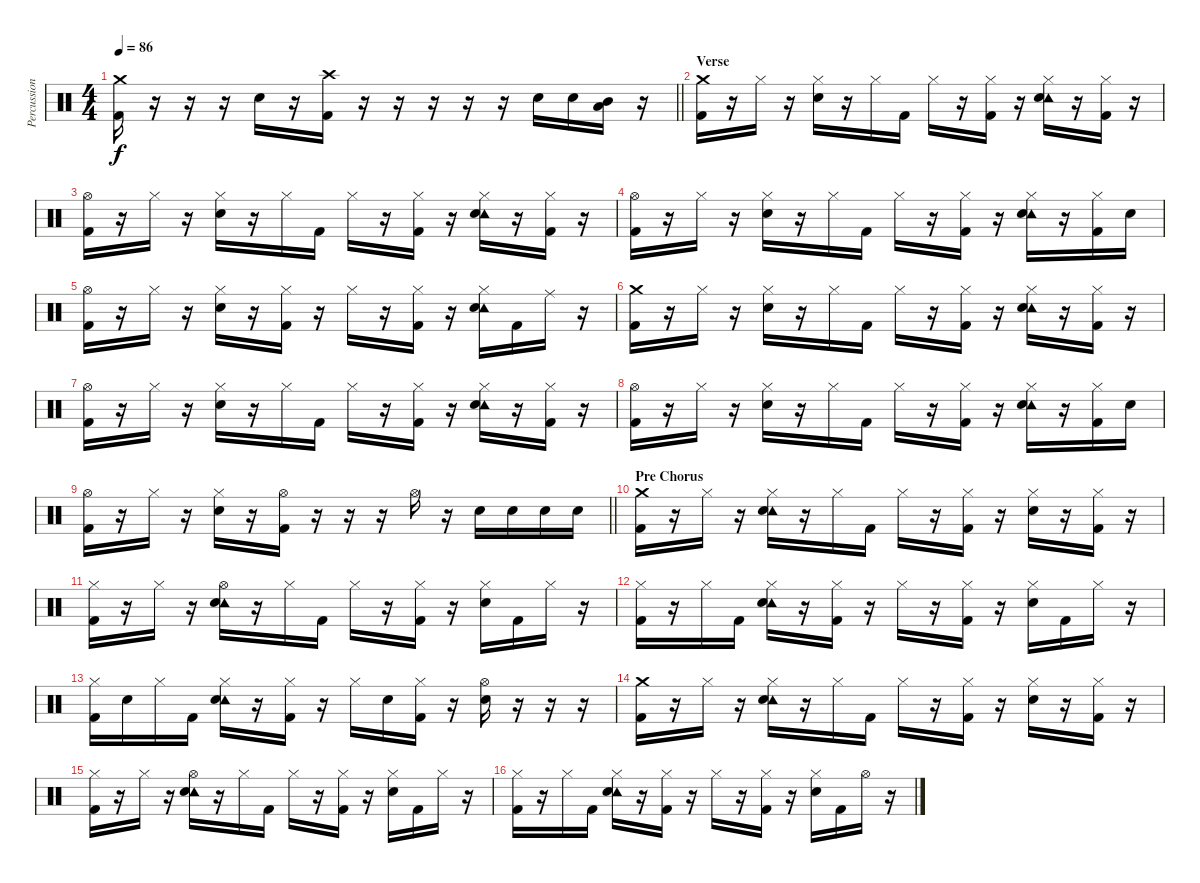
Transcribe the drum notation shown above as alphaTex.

\track ("Percussion" "Percussion") {instrument percussion}
\staff {score}
\articulation defaults
\ts (4 4)
\tempo 86
\clef neutral
\barLineRight lightlight
\ks c
("Crash medium (hit)" "Kick (hit) 2").16{dy f} r.16 r.16 r.16 "Snare (hit) 2".16 r.16 ("Crash high (hit)" "Kick (hit) 2").16 r.16 r.16 r.16 r.16 r.16 "Snare (hit) 2".16 "Snare (hit) 2".16 ("Mid Tom (hit)" "Low Tom (hit)").16 r.16 |
\section ("" "Verse")
("Crash medium (hit)" "Kick (hit) 2").16 r.16 "Hi-Hat (closed)".16 r.16 ("Hi-Hat (closed)" "Snare (hit) 2").16 r.16 "Hi-Hat (closed)".16 "Kick (hit) 2".16 "Hi-Hat (closed)".16 r.16 ("Hi-Hat (closed)" "Kick (hit) 2").16 r.16 ("Hi-Hat (closed)" "Tambourine (hit)" "Snare (hit) 2").16 r.16 ("Hi-Hat (closed)" "Kick (hit) 2").16 r.16 |
("Hi-Hat (open)" "Kick (hit) 2").16 r.16 "Hi-Hat (closed)".16 r.16 ("Hi-Hat (closed)" "Snare (hit) 2").16 r.16 "Hi-Hat (closed)".16 "Kick (hit) 2".16 "Hi-Hat (closed)".16 r.16 ("Hi-Hat (closed)" "Kick (hit) 2").16 r.16 ("Hi-Hat (closed)" "Tambourine (hit)" "Snare (hit) 2").16 r.16 ("Hi-Hat (closed)" "Kick (hit) 2").16 r.16 |
("Hi-Hat (open)" "Kick (hit) 2").16 r.16 "Hi-Hat (closed)".16 r.16 ("Hi-Hat (closed)" "Snare (hit) 2").16 r.16 "Hi-Hat (closed)".16 "Kick (hit) 2".16 "Hi-Hat (closed)".16 r.16 ("Hi-Hat (closed)" "Kick (hit) 2").16 r.16 ("Hi-Hat (closed)" "Tambourine (hit)" "Snare (hit) 2").16 r.16 ("Hi-Hat (closed)" "Kick (hit) 2").16 "Snare (hit) 2".16 |
("Hi-Hat (open)" "Kick (hit) 2").16 r.16 "Hi-Hat (closed)".16 r.16 ("Hi-Hat (closed)" "Snare (hit) 2").16 r.16 ("Hi-Hat (closed)" "Kick (hit) 2").16 r.16 "Hi-Hat (closed)".16 r.16 ("Hi-Hat (closed)" "Kick (hit) 2").16 r.16 ("Hi-Hat (closed)" "Tambourine (hit)" "Snare (hit) 2").16 "Kick (hit) 2".16 "Ride (middle)".16 r.16 |
("Crash medium (hit)" "Kick (hit) 2").16 r.16 "Hi-Hat (closed)".16 r.16 ("Hi-Hat (closed)" "Snare (hit) 2").16 r.16 "Hi-Hat (closed)".16 "Kick (hit) 2".16 "Hi-Hat (closed)".16 r.16 ("Hi-Hat (closed)" "Kick (hit) 2").16 r.16 ("Hi-Hat (closed)" "Tambourine (hit)" "Snare (hit) 2").16 r.16 ("Hi-Hat (closed)" "Kick (hit) 2").16 r.16 |
("Hi-Hat (open)" "Kick (hit) 2").16 r.16 "Hi-Hat (closed)".16 r.16 ("Hi-Hat (closed)" "Snare (hit) 2").16 r.16 "Hi-Hat (closed)".16 "Kick (hit) 2".16 "Hi-Hat (closed)".16 r.16 ("Hi-Hat (closed)" "Kick (hit) 2").16 r.16 ("Hi-Hat (closed)" "Tambourine (hit)" "Snare (hit) 2").16 r.16 ("Hi-Hat (closed)" "Kick (hit) 2").16 r.16 |
("Hi-Hat (open)" "Kick (hit) 2").16 r.16 "Hi-Hat (closed)".16 r.16 ("Hi-Hat (closed)" "Snare (hit) 2").16 r.16 "Hi-Hat (closed)".16 "Kick (hit) 2".16 "Hi-Hat (closed)".16 r.16 ("Hi-Hat (closed)" "Kick (hit) 2").16 r.16 ("Hi-Hat (closed)" "Tambourine (hit)" "Snare (hit) 2").16 r.16 ("Hi-Hat (closed)" "Kick (hit) 2").16 "Snare (hit) 2".16 |
\barLineRight lightlight
("Hi-Hat (open)" "Kick (hit) 2").16 r.16 "Hi-Hat (closed)".16 r.16 ("Hi-Hat (closed)" "Snare (hit) 2").16 r.16 ("Hi-Hat (open)" "Kick (hit) 2").16 r.16 r.16 r.16 "Hi-Hat (open)".16 r.16 "Snare (hit) 2".16 "Snare (hit) 2".16 "Snare (hit) 2".16 "Snare (hit) 2".16 |
\section ("" "Pre Chorus")
("Crash medium (hit)" "Kick (hit) 2").16 r.16 "Hi-Hat (closed)".16 r.16 ("Hi-Hat (closed)" "Tambourine (hit)" "Snare (hit) 2").16 r.16 "Hi-Hat (closed)".16 "Kick (hit) 2".16 "Hi-Hat (closed)".16 r.16 ("Hi-Hat (closed)" "Kick (hit) 2").16 r.16 ("Hi-Hat (closed)" "Snare (hit) 2").16 r.16 ("Hi-Hat (closed)" "Kick (hit) 2").16 r.16 |
("Hi-Hat (closed)" "Kick (hit) 2").16 r.16 "Hi-Hat (closed)".16 r.16 ("Hi-Hat (open)" "Tambourine (hit)" "Snare (hit) 2").16 r.16 "Hi-Hat (closed)".16 "Kick (hit) 2".16 "Hi-Hat (closed)".16 r.16 ("Hi-Hat (closed)" "Kick (hit) 2").16 r.16 ("Hi-Hat (closed)" "Snare (hit) 2").16 "Kick (hit) 2".16 "Hi-Hat (closed)".16 r.16 |
("Hi-Hat (closed)" "Kick (hit) 2").16 r.16 "Hi-Hat (closed)".16 "Kick (hit) 2".16 ("Hi-Hat (closed)" "Tambourine (hit)" "Snare (hit) 2").16 r.16 ("Hi-Hat (closed)" "Kick (hit) 2").16 r.16 "Hi-Hat (closed)".16 r.16 ("Hi-Hat (closed)" "Kick (hit) 2").16 r.16 ("Hi-Hat (closed)" "Snare (hit) 2").16 "Kick (hit) 2".16 "Hi-Hat (closed)".16 r.16 |
("Hi-Hat (closed)" "Kick (hit) 2").16 "Snare (hit) 2".16 "Hi-Hat (closed)".16 "Kick (hit) 2".16 ("Hi-Hat (closed)" "Tambourine (hit)" "Snare (hit) 2").16 r.16 ("Hi-Hat (closed)" "Kick (hit) 2").16 r.16 "Hi-Hat (closed)".16 "Snare (hit) 2".16 ("Hi-Hat (closed)" "Kick (hit) 2").16 r.16 ("Hi-Hat (open)" "Snare (hit) 2").16 r.16 r.16 r.16 |
("Crash medium (hit)" "Kick (hit) 2").16 r.16 "Hi-Hat (closed)".16 r.16 ("Hi-Hat (closed)" "Tambourine (hit)" "Snare (hit) 2").16 r.16 "Hi-Hat (closed)".16 "Kick (hit) 2".16 "Hi-Hat (closed)".16 r.16 ("Hi-Hat (closed)" "Kick (hit) 2").16 r.16 ("Hi-Hat (closed)" "Snare (hit) 2").16 r.16 ("Hi-Hat (closed)" "Kick (hit) 2").16 r.16 |
("Hi-Hat (closed)" "Kick (hit) 2").16 r.16 "Hi-Hat (closed)".16 r.16 ("Hi-Hat (open)" "Tambourine (hit)" "Snare (hit) 2").16 r.16 "Hi-Hat (closed)".16 "Kick (hit) 2".16 "Hi-Hat (closed)".16 r.16 ("Hi-Hat (closed)" "Kick (hit) 2").16 r.16 ("Hi-Hat (closed)" "Snare (hit) 2").16 "Kick (hit) 2".16 "Hi-Hat (closed)".16 r.16 |
("Hi-Hat (closed)" "Kick (hit) 2").16 r.16 "Hi-Hat (closed)".16 "Kick (hit) 2".16 ("Hi-Hat (closed)" "Tambourine (hit)" "Snare (hit) 2").16 r.16 ("Hi-Hat (closed)" "Kick (hit) 2").16 r.16 "Hi-Hat (closed)".16 r.16 ("Hi-Hat (closed)" "Kick (hit) 2").16 r.16 ("Hi-Hat (closed)" "Snare (hit) 2").16 "Kick (hit) 2".16 "Hi-Hat (open)".16 r.16
